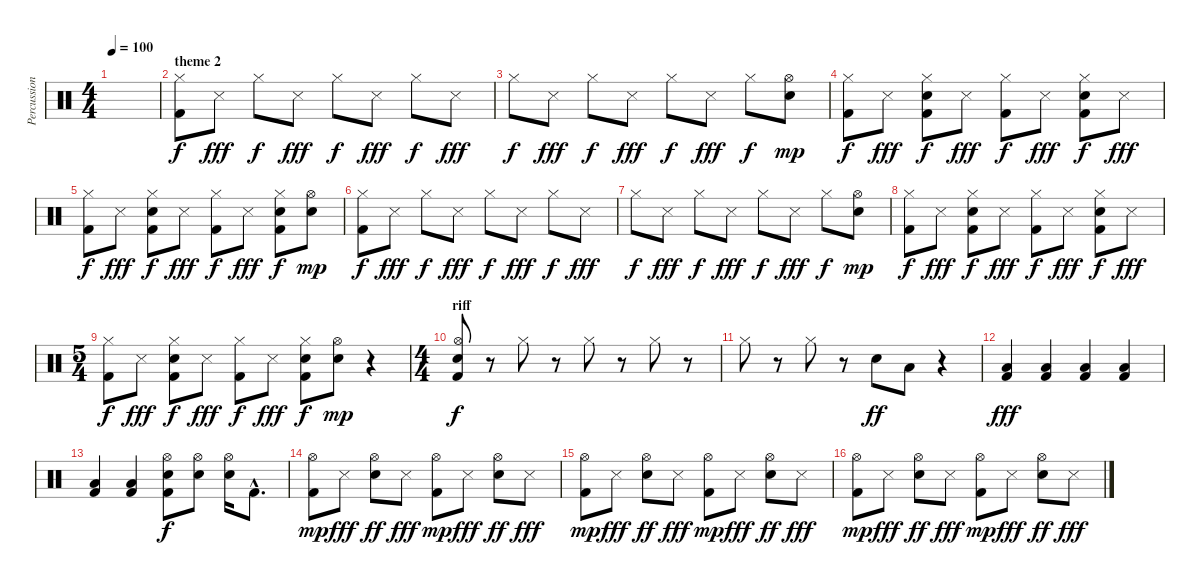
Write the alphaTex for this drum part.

\track ("Percussions" "Percussion") {instrument percussion}
\staff {score}
\articulation defaults
\ts (4 4)
\tempo 100
\clef neutral
\ks c
|
\section ("" "theme 2")
("Hi-Hat (closed)" "Kick (hit) 2").8{dy f} "Snare (side stick) 3".8{dy fff} "Hi-Hat (closed)".8{dy f} "Snare (side stick) 3".8{dy fff} "Hi-Hat (closed)".8{dy f} "Snare (side stick) 3".8{dy fff} "Hi-Hat (closed)".8{dy f} "Snare (side stick) 3".8{dy fff} |
"Hi-Hat (closed)".8{dy f} "Snare (side stick) 3".8{dy fff} "Hi-Hat (closed)".8{dy f} "Snare (side stick) 3".8{dy fff} "Hi-Hat (closed)".8{dy f} "Snare (side stick) 3".8{dy fff} "Hi-Hat (closed)".8{dy f} ("Hi-Hat (open)" "Electric Snare (hit)").8{dy mp} |
("Hi-Hat (closed)" "Kick (hit) 2").8{dy f} "Snare (side stick) 3".8{dy fff} ("Hi-Hat (closed)" "Electric Snare (hit)" "Kick (hit) 2").8{dy f} "Snare (side stick) 3".8{dy fff} ("Hi-Hat (closed)" "Kick (hit) 2").8{dy f} "Snare (side stick) 3".8{dy fff} ("Hi-Hat (closed)" "Electric Snare (hit)" "Kick (hit) 2").8{dy f} "Snare (side stick) 3".8{dy fff} |
("Hi-Hat (closed)" "Kick (hit) 2").8{dy f} "Snare (side stick) 3".8{dy fff} ("Hi-Hat (closed)" "Electric Snare (hit)" "Kick (hit) 2").8{dy f} "Snare (side stick) 3".8{dy fff} ("Hi-Hat (closed)" "Kick (hit) 2").8{dy f} "Snare (side stick) 3".8{dy fff} ("Hi-Hat (closed)" "Electric Snare (hit)" "Kick (hit) 2").8{dy f} ("Hi-Hat (open)" "Electric Snare (hit)").8{dy mp} |
("Hi-Hat (closed)" "Kick (hit) 2").8{dy f} "Snare (side stick) 3".8{dy fff} "Hi-Hat (closed)".8{dy f} "Snare (side stick) 3".8{dy fff} "Hi-Hat (closed)".8{dy f} "Snare (side stick) 3".8{dy fff} "Hi-Hat (closed)".8{dy f} "Snare (side stick) 3".8{dy fff} |
"Hi-Hat (closed)".8{dy f} "Snare (side stick) 3".8{dy fff} "Hi-Hat (closed)".8{dy f} "Snare (side stick) 3".8{dy fff} "Hi-Hat (closed)".8{dy f} "Snare (side stick) 3".8{dy fff} "Hi-Hat (closed)".8{dy f} ("Hi-Hat (open)" "Electric Snare (hit)").8{dy mp} |
("Hi-Hat (closed)" "Kick (hit) 2").8{dy f} "Snare (side stick) 3".8{dy fff} ("Hi-Hat (closed)" "Electric Snare (hit)" "Kick (hit) 2").8{dy f} "Snare (side stick) 3".8{dy fff} ("Hi-Hat (closed)" "Kick (hit) 2").8{dy f} "Snare (side stick) 3".8{dy fff} ("Hi-Hat (closed)" "Electric Snare (hit)" "Kick (hit) 2").8{dy f} "Snare (side stick) 3".8{dy fff} |
\ts (5 4)
("Hi-Hat (closed)" "Kick (hit) 2").8{dy f} "Snare (side stick) 3".8{dy fff} ("Hi-Hat (closed)" "Electric Snare (hit)" "Kick (hit) 2").8{dy f} "Snare (side stick) 3".8{dy fff} ("Hi-Hat (closed)" "Kick (hit) 2").8{dy f} "Snare (side stick) 3".8{dy fff} ("Hi-Hat (closed)" "Electric Snare (hit)" "Kick (hit) 2").8{dy f} ("Hi-Hat (open)" "Electric Snare (hit)").8{dy mp} r.4 |
\ts (4 4)
\section ("" "riff")
("Hi-Hat (open)" "Electric Snare (hit)" "Kick (hit) 2").8{dy f} r.8 "Hi-Hat (closed)".8 r.8 "Hi-Hat (closed)".8 r.8 "Hi-Hat (closed)".8 r.8 |
"Hi-Hat (closed)".8 r.8 "Hi-Hat (closed)".8 r.8 "Electric Snare (hit)".8{dy ff} "Low Tom (hit)".8 r.4 |
("Low Tom (hit)" "Kick (hit) 2").4{dy fff} ("Low Tom (hit)" "Kick (hit) 2").4 ("Low Tom (hit)" "Kick (hit) 2").4 ("Low Tom (hit)" "Kick (hit) 2").4 |
("Low Tom (hit)" "Kick (hit) 2").4 ("Low Tom (hit)" "Kick (hit) 2").4 ("Hi-Hat (open)" "Electric Snare (hit)" "Kick (hit) 2").8{dy f} ("Hi-Hat (open)" "Electric Snare (hit)").8 ("Hi-Hat (open)" "Electric Snare (hit)").16 "Kick (hit) 2"{hac}.8{d} |
("Hi-Hat (open)" "Kick (hit) 2").8{dy mp} "Snare (side stick) 3".8{dy fff} ("Hi-Hat (open)" "Electric Snare (hit)").8{dy ff} "Snare (side stick) 3".8{dy fff} ("Hi-Hat (open)" "Kick (hit) 2").8{dy mp} "Snare (side stick) 3".8{dy fff} ("Hi-Hat (open)" "Electric Snare (hit)").8{dy ff} "Snare (side stick) 3".8{dy fff} |
("Hi-Hat (open)" "Kick (hit) 2").8{dy mp} "Snare (side stick) 3".8{dy fff} ("Hi-Hat (open)" "Electric Snare (hit)").8{dy ff} "Snare (side stick) 3".8{dy fff} ("Hi-Hat (open)" "Kick (hit) 2").8{dy mp} "Snare (side stick) 3".8{dy fff} ("Hi-Hat (open)" "Electric Snare (hit)").8{dy ff} "Snare (side stick) 3".8{dy fff} |
("Hi-Hat (open)" "Kick (hit) 2").8{dy mp} "Snare (side stick) 3".8{dy fff} ("Hi-Hat (open)" "Electric Snare (hit)").8{dy ff} "Snare (side stick) 3".8{dy fff} ("Hi-Hat (open)" "Kick (hit) 2").8{dy mp} "Snare (side stick) 3".8{dy fff} ("Hi-Hat (open)" "Electric Snare (hit)").8{dy ff} "Snare (side stick) 3".8{dy fff}
